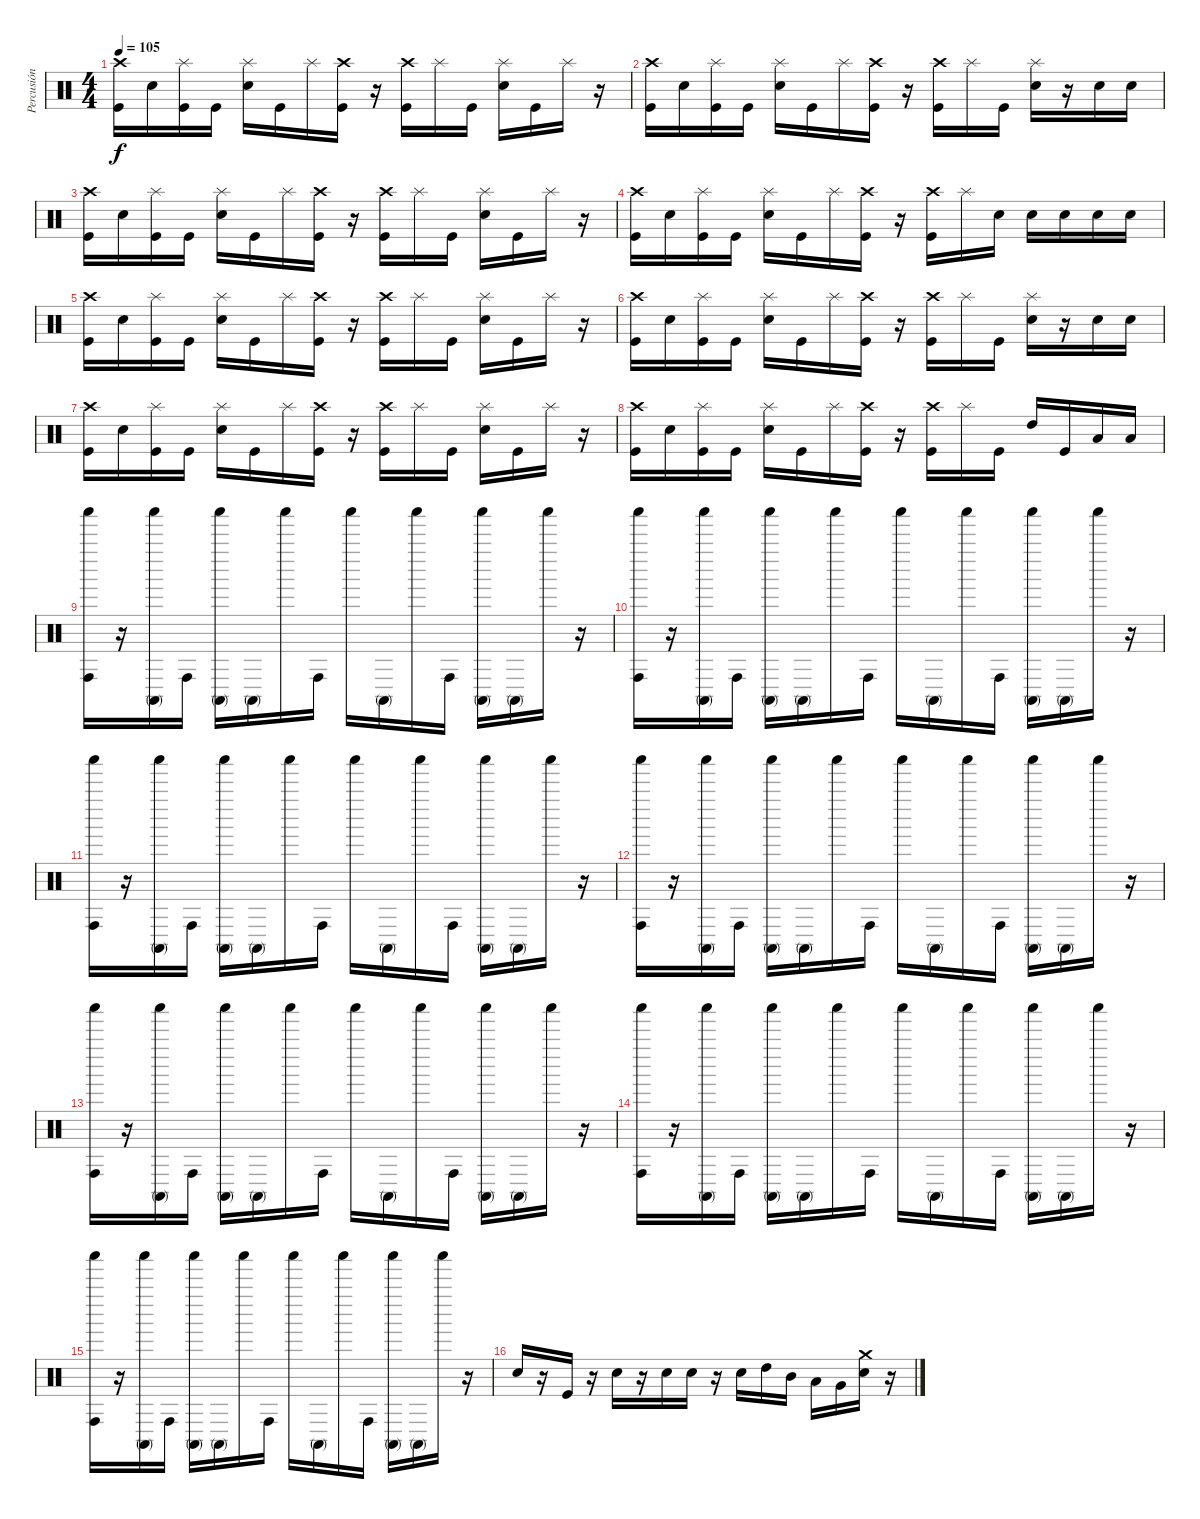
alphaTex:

\track ("Percusión" "Percusión") {instrument percussion}
\staff {score}
\articulation defaults
\ts (4 4)
\tempo 105
\clef neutral
\ks c
("Crash high (hit)" "Kick (hit)").16{dy f} "Electric Snare (hit)".16 ("Splash (hit)" "Kick (hit)").16 "Kick (hit)".16 ("Splash (hit)" "Electric Snare (hit)").16 "Kick (hit)".16 "Splash (hit)".16 ("Crash high (hit)" "Kick (hit)").16 r.16 ("Crash high (hit)" "Kick (hit)").16 "Splash (hit)".16 "Kick (hit)".16 ("Splash (hit)" "Electric Snare (hit)").16 "Kick (hit)".16 "Splash (hit)".16 r.16 |
("Crash high (hit)" "Kick (hit)").16 "Electric Snare (hit)".16 ("Splash (hit)" "Kick (hit)").16 "Kick (hit)".16 ("Splash (hit)" "Electric Snare (hit)").16 "Kick (hit)".16 "Splash (hit)".16 ("Crash high (hit)" "Kick (hit)").16 r.16 ("Crash high (hit)" "Kick (hit)").16 "Splash (hit)".16 "Kick (hit)".16 ("Splash (hit)" "Electric Snare (hit)").16 r.16 "Electric Snare (hit)".16 "Electric Snare (hit)".16 |
("Crash high (hit)" "Kick (hit)").16 "Electric Snare (hit)".16 ("Splash (hit)" "Kick (hit)").16 "Kick (hit)".16 ("Splash (hit)" "Electric Snare (hit)").16 "Kick (hit)".16 "Splash (hit)".16 ("Crash high (hit)" "Kick (hit)").16 r.16 ("Crash high (hit)" "Kick (hit)").16 "Splash (hit)".16 "Kick (hit)".16 ("Splash (hit)" "Electric Snare (hit)").16 "Kick (hit)".16 "Splash (hit)".16 r.16 |
("Crash high (hit)" "Kick (hit)").16 "Electric Snare (hit)".16 ("Splash (hit)" "Kick (hit)").16 "Kick (hit)".16 ("Splash (hit)" "Electric Snare (hit)").16 "Kick (hit)".16 "Splash (hit)".16 ("Crash high (hit)" "Kick (hit)").16 r.16 ("Crash high (hit)" "Kick (hit)").16 "Splash (hit)".16 "Electric Snare (hit)".16 "Electric Snare (hit)".16 "Electric Snare (hit)".16 "Electric Snare (hit)".16 "Electric Snare (hit)".16 |
("Crash high (hit)" "Kick (hit)").16 "Electric Snare (hit)".16 ("Splash (hit)" "Kick (hit)").16 "Kick (hit)".16 ("Splash (hit)" "Electric Snare (hit)").16 "Kick (hit)".16 "Splash (hit)".16 ("Crash high (hit)" "Kick (hit)").16 r.16 ("Crash high (hit)" "Kick (hit)").16 "Splash (hit)".16 "Kick (hit)".16 ("Splash (hit)" "Electric Snare (hit)").16 "Kick (hit)".16 "Splash (hit)".16 r.16 |
("Crash high (hit)" "Kick (hit)").16 "Electric Snare (hit)".16 ("Splash (hit)" "Kick (hit)").16 "Kick (hit)".16 ("Splash (hit)" "Electric Snare (hit)").16 "Kick (hit)".16 "Splash (hit)".16 ("Crash high (hit)" "Kick (hit)").16 r.16 ("Crash high (hit)" "Kick (hit)").16 "Splash (hit)".16 "Kick (hit)".16 ("Splash (hit)" "Electric Snare (hit)").16 r.16 "Electric Snare (hit)".16 "Electric Snare (hit)".16 |
("Crash high (hit)" "Kick (hit)").16 "Electric Snare (hit)".16 ("Splash (hit)" "Kick (hit)").16 "Kick (hit)".16 ("Splash (hit)" "Electric Snare (hit)").16 "Kick (hit)".16 "Splash (hit)".16 ("Crash high (hit)" "Kick (hit)").16 r.16 ("Crash high (hit)" "Kick (hit)").16 "Splash (hit)".16 "Kick (hit)".16 ("Splash (hit)" "Electric Snare (hit)").16 "Kick (hit)".16 "Splash (hit)".16 r.16 |
("Crash high (hit)" "Kick (hit)").16 "Electric Snare (hit)".16 ("Splash (hit)" "Kick (hit)").16 "Kick (hit)".16 ("Splash (hit)" "Electric Snare (hit)").16 "Kick (hit)".16 "Splash (hit)".16 ("Crash high (hit)" "Kick (hit)").16 r.16 ("Crash high (hit)" "Kick (hit)").16 "Splash (hit)".16 "Kick (hit)".16 "High Tom (hit)".16 "Kick (hit)".16 "Low Tom (hit)".16 "Low Floor Tom (hit)".16 |
("Shaker (hit)" "Conga high (hit)").16{volume 16} r.16 ("Shaker (hit)" "Conga high (mute)").16 "Conga high (hit)".16 ("Shaker (hit)" "Conga high (mute)").16 "Conga high (mute)".16 "Shaker (hit)".16 "Conga high (hit)".16 "Shaker (hit)".16 "Conga high (mute)".16 "Shaker (hit)".16 "Conga high (hit)".16 ("Shaker (hit)" "Conga high (mute)").16 "Conga high (mute)".16 "Shaker (hit)".16 r.16 |
("Shaker (hit)" "Conga high (hit)").16{volume 16} r.16 ("Shaker (hit)" "Conga high (mute)").16 "Conga high (hit)".16 ("Shaker (hit)" "Conga high (mute)").16 "Conga high (mute)".16 "Shaker (hit)".16 "Conga high (hit)".16 "Shaker (hit)".16 "Conga high (mute)".16 "Shaker (hit)".16 "Conga high (hit)".16 ("Shaker (hit)" "Conga high (mute)").16 "Conga high (mute)".16 "Shaker (hit)".16 r.16 |
("Shaker (hit)" "Conga high (hit)").16{volume 16} r.16 ("Shaker (hit)" "Conga high (mute)").16 "Conga high (hit)".16 ("Shaker (hit)" "Conga high (mute)").16 "Conga high (mute)".16 "Shaker (hit)".16 "Conga high (hit)".16 "Shaker (hit)".16 "Conga high (mute)".16 "Shaker (hit)".16 "Conga high (hit)".16 ("Shaker (hit)" "Conga high (mute)").16 "Conga high (mute)".16 "Shaker (hit)".16 r.16 |
("Shaker (hit)" "Conga high (hit)").16{volume 16} r.16 ("Shaker (hit)" "Conga high (mute)").16 "Conga high (hit)".16 ("Shaker (hit)" "Conga high (mute)").16 "Conga high (mute)".16 "Shaker (hit)".16 "Conga high (hit)".16 "Shaker (hit)".16 "Conga high (mute)".16 "Shaker (hit)".16 "Conga high (hit)".16 ("Shaker (hit)" "Conga high (mute)").16 "Conga high (mute)".16 "Shaker (hit)".16 r.16 |
("Shaker (hit)" "Conga high (hit)").16{volume 16} r.16 ("Shaker (hit)" "Conga high (mute)").16 "Conga high (hit)".16 ("Shaker (hit)" "Conga high (mute)").16 "Conga high (mute)".16 "Shaker (hit)".16 "Conga high (hit)".16 "Shaker (hit)".16 "Conga high (mute)".16 "Shaker (hit)".16 "Conga high (hit)".16 ("Shaker (hit)" "Conga high (mute)").16 "Conga high (mute)".16 "Shaker (hit)".16 r.16 |
("Shaker (hit)" "Conga high (hit)").16{volume 16} r.16 ("Shaker (hit)" "Conga high (mute)").16 "Conga high (hit)".16 ("Shaker (hit)" "Conga high (mute)").16 "Conga high (mute)".16 "Shaker (hit)".16 "Conga high (hit)".16 "Shaker (hit)".16 "Conga high (mute)".16 "Shaker (hit)".16 "Conga high (hit)".16 ("Shaker (hit)" "Conga high (mute)").16 "Conga high (mute)".16 "Shaker (hit)".16 r.16 |
("Shaker (hit)" "Conga high (hit)").16{volume 16} r.16 ("Shaker (hit)" "Conga high (mute)").16 "Conga high (hit)".16 ("Shaker (hit)" "Conga high (mute)").16 "Conga high (mute)".16 "Shaker (hit)".16 "Conga high (hit)".16 "Shaker (hit)".16 "Conga high (mute)".16 "Shaker (hit)".16 "Conga high (hit)".16 ("Shaker (hit)" "Conga high (mute)").16 "Conga high (mute)".16 "Shaker (hit)".16 r.16 |
"Electric Snare (hit)".16 r.16 "Kick (hit)".16 r.16 "Electric Snare (hit)".16 r.16 "Electric Snare (hit)".16 "Electric Snare (hit)".16 r.16 "Electric Snare (hit)".16 "High Tom (hit)".16 "Mid Tom (hit)".16 "Low Tom (hit)".16 "Very Low Tom (hit)".16 ("Crash medium (hit)" "Electric Snare (hit)").16 r.16
